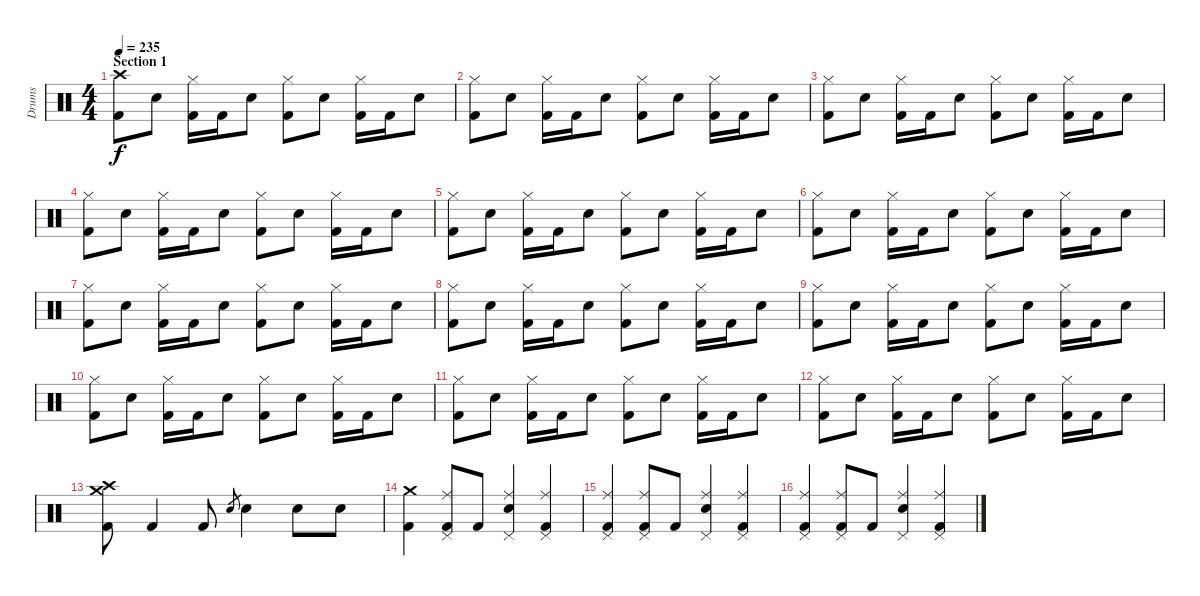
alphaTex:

\track ("Drums" "Drums") {instrument percussion}
\staff {score}
\articulation defaults
\ts (4 4)
\section ("" "Section 1")
\tempo 235
\clef neutral
\ks c
("Crash high (hit)" "Kick (hit) 2").8{dy f} "Electric Snare (hit)".8 ("Hi-Hat (closed)" "Kick (hit) 2").16 "Kick (hit) 2".16 "Electric Snare (hit)".8 ("Hi-Hat (closed)" "Kick (hit) 2").8 "Electric Snare (hit)".8 ("Hi-Hat (closed)" "Kick (hit) 2").16 "Kick (hit) 2".16 "Electric Snare (hit)".8 |
("Hi-Hat (closed)" "Kick (hit) 2").8 "Electric Snare (hit)".8 ("Hi-Hat (closed)" "Kick (hit) 2").16 "Kick (hit) 2".16 "Electric Snare (hit)".8 ("Hi-Hat (closed)" "Kick (hit) 2").8 "Electric Snare (hit)".8 ("Hi-Hat (closed)" "Kick (hit) 2").16 "Kick (hit) 2".16 "Electric Snare (hit)".8 |
("Hi-Hat (closed)" "Kick (hit) 2").8 "Electric Snare (hit)".8 ("Hi-Hat (closed)" "Kick (hit) 2").16 "Kick (hit) 2".16 "Electric Snare (hit)".8 ("Hi-Hat (closed)" "Kick (hit) 2").8 "Electric Snare (hit)".8 ("Hi-Hat (closed)" "Kick (hit) 2").16 "Kick (hit) 2".16 "Electric Snare (hit)".8 |
("Hi-Hat (closed)" "Kick (hit) 2").8 "Electric Snare (hit)".8 ("Hi-Hat (closed)" "Kick (hit) 2").16 "Kick (hit) 2".16 "Electric Snare (hit)".8 ("Hi-Hat (closed)" "Kick (hit) 2").8 "Electric Snare (hit)".8 ("Hi-Hat (closed)" "Kick (hit) 2").16 "Kick (hit) 2".16 "Electric Snare (hit)".8 |
("Hi-Hat (closed)" "Kick (hit) 2").8 "Electric Snare (hit)".8 ("Hi-Hat (closed)" "Kick (hit) 2").16 "Kick (hit) 2".16 "Electric Snare (hit)".8 ("Hi-Hat (closed)" "Kick (hit) 2").8 "Electric Snare (hit)".8 ("Hi-Hat (closed)" "Kick (hit) 2").16 "Kick (hit) 2".16 "Electric Snare (hit)".8 |
("Hi-Hat (closed)" "Kick (hit) 2").8 "Electric Snare (hit)".8 ("Hi-Hat (closed)" "Kick (hit) 2").16 "Kick (hit) 2".16 "Electric Snare (hit)".8 ("Hi-Hat (closed)" "Kick (hit) 2").8 "Electric Snare (hit)".8 ("Hi-Hat (closed)" "Kick (hit) 2").16 "Kick (hit) 2".16 "Electric Snare (hit)".8 |
("Hi-Hat (closed)" "Kick (hit) 2").8 "Electric Snare (hit)".8 ("Hi-Hat (closed)" "Kick (hit) 2").16 "Kick (hit) 2".16 "Electric Snare (hit)".8 ("Hi-Hat (closed)" "Kick (hit) 2").8 "Electric Snare (hit)".8 ("Hi-Hat (closed)" "Kick (hit) 2").16 "Kick (hit) 2".16 "Electric Snare (hit)".8 |
("Hi-Hat (closed)" "Kick (hit) 2").8 "Electric Snare (hit)".8 ("Hi-Hat (closed)" "Kick (hit) 2").16 "Kick (hit) 2".16 "Electric Snare (hit)".8 ("Hi-Hat (closed)" "Kick (hit) 2").8 "Electric Snare (hit)".8 ("Hi-Hat (closed)" "Kick (hit) 2").16 "Kick (hit) 2".16 "Electric Snare (hit)".8 |
("Hi-Hat (closed)" "Kick (hit) 2").8 "Electric Snare (hit)".8 ("Hi-Hat (closed)" "Kick (hit) 2").16 "Kick (hit) 2".16 "Electric Snare (hit)".8 ("Hi-Hat (closed)" "Kick (hit) 2").8 "Electric Snare (hit)".8 ("Hi-Hat (closed)" "Kick (hit) 2").16 "Kick (hit) 2".16 "Electric Snare (hit)".8 |
("Hi-Hat (closed)" "Kick (hit) 2").8 "Electric Snare (hit)".8 ("Hi-Hat (closed)" "Kick (hit) 2").16 "Kick (hit) 2".16 "Electric Snare (hit)".8 ("Hi-Hat (closed)" "Kick (hit) 2").8 "Electric Snare (hit)".8 ("Hi-Hat (closed)" "Kick (hit) 2").16 "Kick (hit) 2".16 "Electric Snare (hit)".8 |
("Hi-Hat (closed)" "Kick (hit) 2").8 "Electric Snare (hit)".8 ("Hi-Hat (closed)" "Kick (hit) 2").16 "Kick (hit) 2".16 "Electric Snare (hit)".8 ("Hi-Hat (closed)" "Kick (hit) 2").8 "Electric Snare (hit)".8 ("Hi-Hat (closed)" "Kick (hit) 2").16 "Kick (hit) 2".16 "Electric Snare (hit)".8 |
("Hi-Hat (closed)" "Kick (hit) 2").8 "Electric Snare (hit)".8 ("Hi-Hat (closed)" "Kick (hit) 2").16 "Kick (hit) 2".16 "Electric Snare (hit)".8 ("Hi-Hat (closed)" "Kick (hit) 2").8 "Electric Snare (hit)".8 ("Hi-Hat (closed)" "Kick (hit) 2").16 "Kick (hit) 2".16 "Electric Snare (hit)".8 |
("Crash high (hit)" "Crash medium (hit)" "Kick (hit) 2").8 "Kick (hit) 2".4 "Kick (hit) 2".8 "Electric Snare (hit)".8{gr} "Electric Snare (hit)".4 "Electric Snare (hit)".8 "Electric Snare (hit)".8 |
("Crash medium (hit)" "Kick (hit) 2").4 ("Ride (middle)" "Pedal Hi-Hat (hit)" "Kick (hit) 2").8 "Kick (hit) 2".8 ("Ride (middle)" "Pedal Hi-Hat (hit)" "Electric Snare (hit)").4 ("Ride (middle)" "Pedal Hi-Hat (hit)" "Kick (hit) 2").4 |
("Ride (middle)" "Pedal Hi-Hat (hit)" "Kick (hit) 2").4 ("Ride (middle)" "Pedal Hi-Hat (hit)" "Kick (hit) 2").8 "Kick (hit) 2".8 ("Ride (middle)" "Pedal Hi-Hat (hit)" "Electric Snare (hit)").4 ("Ride (middle)" "Pedal Hi-Hat (hit)" "Kick (hit) 2").4 |
("Ride (middle)" "Pedal Hi-Hat (hit)" "Kick (hit) 2").4 ("Ride (middle)" "Pedal Hi-Hat (hit)" "Kick (hit) 2").8 "Kick (hit) 2".8 ("Ride (middle)" "Pedal Hi-Hat (hit)" "Electric Snare (hit)").4 ("Ride (middle)" "Pedal Hi-Hat (hit)" "Kick (hit) 2").4
